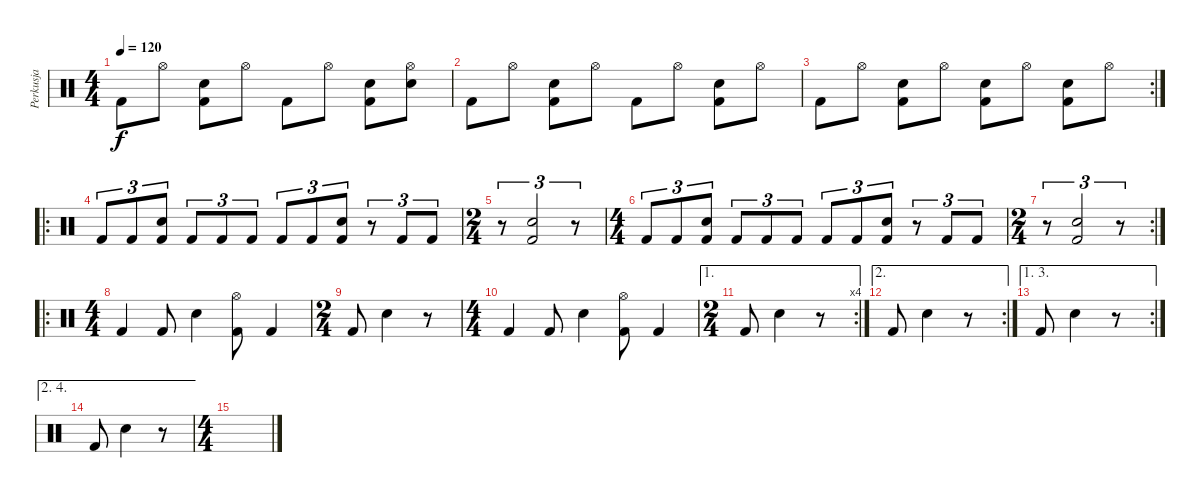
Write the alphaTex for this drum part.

\track ("Perkusja" "Perkusja") {instrument percussion}
\staff {score}
\articulation defaults
\ts (4 4)
\tempo 120
\clef neutral
\ks c "Kick (hit) 2".8{dy f} "Hi-Hat (open)".8
("Snare (hit) 2" "Kick (hit) 2").8 "Hi-Hat (open)".8 "Kick (hit) 2".8 "Hi-Hat (open)".8 ("Snare (hit) 2" "Kick (hit) 2").8 ("Snare (hit) 2" "Hi-Hat (open)").8 |
"Kick (hit) 2".8 "Hi-Hat (open)".8 ("Snare (hit) 2" "Kick (hit) 2").8 "Hi-Hat (open)".8 "Kick (hit) 2".8 "Hi-Hat (open)".8 ("Snare (hit) 2" "Kick (hit) 2").8 "Hi-Hat (open)".8 |
\rc 2 "Kick (hit) 2".8 "Hi-Hat (open)".8
("Snare (hit) 2" "Kick (hit) 2").8 "Hi-Hat (open)".8 ("Snare (hit) 2" "Kick (hit) 2").8 "Hi-Hat (open)".8 ("Snare (hit) 2" "Kick (hit) 2").8 "Hi-Hat (open)".8 |
\ro "Kick (hit) 2".8{tu (3 2)} "Kick (hit) 2".8{tu (3 2)}
("Snare (hit) 2" "Kick (hit) 2").8{tu (3 2)} "Kick (hit) 2".8{tu (3 2)} "Kick (hit) 2".8{tu (3 2)} "Kick (hit) 2".8{tu (3 2)} "Kick (hit) 2".8{tu (3 2)} "Kick (hit) 2".8{tu (3 2)} ("Snare (hit) 2" "Kick (hit) 2").8{tu (3 2)} r.8{tu (3 2)} "Kick (hit) 2".8{tu (3 2)} "Kick (hit) 2".8{tu (3 2)} |
\ts (2 4)
r.8{tu (3 2)} ("Snare (hit) 2" "Kick (hit) 2").2{tu (3 2)} r.8{tu (3 2)} |
\ts (4 4)
"Kick (hit) 2".8{tu (3 2)} "Kick (hit) 2".8{tu (3 2)} ("Snare (hit) 2" "Kick (hit) 2").8{tu (3 2)} "Kick (hit) 2".8{tu (3 2)} "Kick (hit) 2".8{tu (3 2)} "Kick (hit) 2".8{tu (3 2)} "Kick (hit) 2".8{tu (3 2)} "Kick (hit) 2".8{tu (3 2)} ("Snare (hit) 2" "Kick (hit) 2").8{tu (3 2)} r.8{tu (3 2)} "Kick (hit) 2".8{tu (3 2)} "Kick (hit) 2".8{tu (3 2)} |
\rc 2
\ts (2 4)
r.8{tu (3 2)} ("Snare (hit) 2" "Kick (hit) 2").2{tu (3 2)} r.8{tu (3 2)} |
\ro
\ts (4 4)
"Kick (hit) 2".4 "Kick (hit) 2".8 "Snare (hit) 2".4 ("Hi-Hat (open)" "Kick (hit) 2").8 "Kick (hit) 2".4 |
\ts (2 4)
"Kick (hit) 2".8 "Snare (hit) 2".4 r.8 |
\ts (4 4)
"Kick (hit) 2".4 "Kick (hit) 2".8 "Snare (hit) 2".4 ("Hi-Hat (open)" "Kick (hit) 2").8 "Kick (hit) 2".4 |
\ae 1
\rc 4
\ts (2 4)
"Kick (hit) 2".8 "Snare (hit) 2".4 r.8 |
\ae 2
\rc 2 "Kick (hit) 2".8 "Snare (hit) 2".4
r.8 |
\ae (1 3)
\rc 2 "Kick (hit) 2".8 "Snare (hit) 2".4
r.8 |
\ae (2 4)
"Kick (hit) 2".8 "Snare (hit) 2".4 r.8 |
\ts (4 4)
